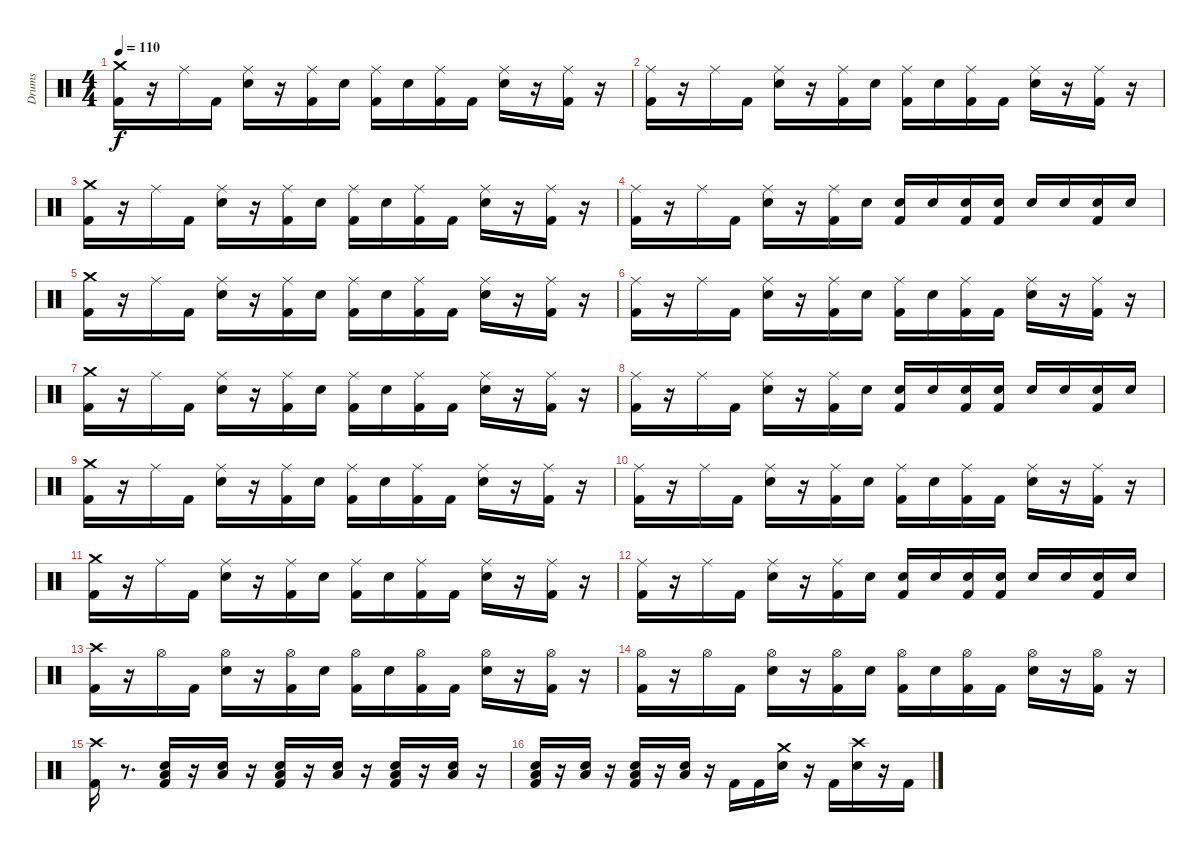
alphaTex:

\track ("Drums" "Drums") {instrument percussion}
\staff {score}
\articulation defaults
\ts (4 4)
\tempo 110
\clef neutral
\ks c
("Kick (hit) 2" "Crash medium (hit)").16{dy f} r.16 "Ride (middle)".16 "Kick (hit) 2".16 ("Electric Snare (hit)" "Ride (middle)").16 r.16 ("Kick (hit) 2" "Ride (middle)").16 "Electric Snare (hit)".16 ("Kick (hit) 2" "Ride (middle)").16 "Electric Snare (hit)".16 ("Kick (hit) 2" "Ride (middle)").16 "Kick (hit) 2".16 ("Electric Snare (hit)" "Ride (middle)").16 r.16 ("Kick (hit) 2" "Ride (middle)").16 r.16 |
("Kick (hit) 2" "Ride (middle)").16 r.16 "Ride (middle)".16 "Kick (hit) 2".16 ("Electric Snare (hit)" "Ride (middle)").16 r.16 ("Kick (hit) 2" "Ride (middle)").16 "Electric Snare (hit)".16 ("Kick (hit) 2" "Ride (middle)").16 "Electric Snare (hit)".16 ("Kick (hit) 2" "Ride (middle)").16 "Kick (hit) 2".16 ("Electric Snare (hit)" "Ride (middle)").16 r.16 ("Kick (hit) 2" "Ride (middle)").16 r.16 |
("Kick (hit) 2" "Crash medium (hit)").16 r.16 "Ride (middle)".16 "Kick (hit) 2".16 ("Electric Snare (hit)" "Ride (middle)").16 r.16 ("Kick (hit) 2" "Ride (middle)").16 "Electric Snare (hit)".16 ("Kick (hit) 2" "Ride (middle)").16 "Electric Snare (hit)".16 ("Kick (hit) 2" "Ride (middle)").16 "Kick (hit) 2".16 ("Electric Snare (hit)" "Ride (middle)").16 r.16 ("Kick (hit) 2" "Ride (middle)").16 r.16 |
("Kick (hit) 2" "Ride (middle)").16 r.16 "Ride (middle)".16 "Kick (hit) 2".16 ("Electric Snare (hit)" "Ride (middle)").16 r.16 ("Kick (hit) 2" "Ride (middle)").16 "Electric Snare (hit)".16 ("Kick (hit) 2" "Electric Snare (hit)").16 "Electric Snare (hit)".16 ("Kick (hit) 2" "Electric Snare (hit)").16 ("Kick (hit) 2" "Electric Snare (hit)").16 "Electric Snare (hit)".16 "Electric Snare (hit)".16 ("Kick (hit) 2" "Electric Snare (hit)").16 "Electric Snare (hit)".16 |
("Crash medium (hit)" "Kick (hit) 2").16 r.16 "Ride (middle)".16 "Kick (hit) 2".16 ("Electric Snare (hit)" "Ride (middle)").16 r.16 ("Kick (hit) 2" "Ride (middle)").16 "Electric Snare (hit)".16 ("Kick (hit) 2" "Ride (middle)").16 "Electric Snare (hit)".16 ("Kick (hit) 2" "Ride (middle)").16 "Kick (hit) 2".16 ("Electric Snare (hit)" "Ride (middle)").16 r.16 ("Kick (hit) 2" "Ride (middle)").16 r.16 |
("Kick (hit) 2" "Ride (middle)").16 r.16 "Ride (middle)".16 "Kick (hit) 2".16 ("Electric Snare (hit)" "Ride (middle)").16 r.16 ("Kick (hit) 2" "Ride (middle)").16 "Electric Snare (hit)".16 ("Kick (hit) 2" "Ride (middle)").16 "Electric Snare (hit)".16 ("Kick (hit) 2" "Ride (middle)").16 "Kick (hit) 2".16 ("Electric Snare (hit)" "Ride (middle)").16 r.16 ("Kick (hit) 2" "Ride (middle)").16 r.16 |
("Kick (hit) 2" "Crash medium (hit)").16 r.16 "Ride (middle)".16 "Kick (hit) 2".16 ("Electric Snare (hit)" "Ride (middle)").16 r.16 ("Kick (hit) 2" "Ride (middle)").16 "Electric Snare (hit)".16 ("Kick (hit) 2" "Ride (middle)").16 "Electric Snare (hit)".16 ("Kick (hit) 2" "Ride (middle)").16 "Kick (hit) 2".16 ("Electric Snare (hit)" "Ride (middle)").16 r.16 ("Kick (hit) 2" "Ride (middle)").16 r.16 |
("Kick (hit) 2" "Ride (middle)").16 r.16 "Ride (middle)".16 "Kick (hit) 2".16 ("Electric Snare (hit)" "Ride (middle)").16 r.16 ("Kick (hit) 2" "Ride (middle)").16 "Electric Snare (hit)".16 ("Kick (hit) 2" "Electric Snare (hit)").16 "Electric Snare (hit)".16 ("Kick (hit) 2" "Electric Snare (hit)").16 ("Kick (hit) 2" "Electric Snare (hit)").16 "Electric Snare (hit)".16 "Electric Snare (hit)".16 ("Kick (hit) 2" "Electric Snare (hit)").16 "Electric Snare (hit)".16 |
("Crash medium (hit)" "Kick (hit) 2").16 r.16 "Ride (middle)".16 "Kick (hit) 2".16 ("Electric Snare (hit)" "Ride (middle)").16 r.16 ("Kick (hit) 2" "Ride (middle)").16 "Electric Snare (hit)".16 ("Kick (hit) 2" "Ride (middle)").16 "Electric Snare (hit)".16 ("Kick (hit) 2" "Ride (middle)").16 "Kick (hit) 2".16 ("Electric Snare (hit)" "Ride (middle)").16 r.16 ("Kick (hit) 2" "Ride (middle)").16 r.16 |
("Kick (hit) 2" "Ride (middle)").16 r.16 "Ride (middle)".16 "Kick (hit) 2".16 ("Electric Snare (hit)" "Ride (middle)").16 r.16 ("Kick (hit) 2" "Ride (middle)").16 "Electric Snare (hit)".16 ("Kick (hit) 2" "Ride (middle)").16 "Electric Snare (hit)".16 ("Kick (hit) 2" "Ride (middle)").16 "Kick (hit) 2".16 ("Electric Snare (hit)" "Ride (middle)").16 r.16 ("Kick (hit) 2" "Ride (middle)").16 r.16 |
("Kick (hit) 2" "Crash medium (hit)").16 r.16 "Ride (middle)".16 "Kick (hit) 2".16 ("Electric Snare (hit)" "Ride (middle)").16 r.16 ("Kick (hit) 2" "Ride (middle)").16 "Electric Snare (hit)".16 ("Kick (hit) 2" "Ride (middle)").16 "Electric Snare (hit)".16 ("Kick (hit) 2" "Ride (middle)").16 "Kick (hit) 2".16 ("Electric Snare (hit)" "Ride (middle)").16 r.16 ("Kick (hit) 2" "Ride (middle)").16 r.16 |
("Kick (hit) 2" "Ride (middle)").16 r.16 "Ride (middle)".16 "Kick (hit) 2".16 ("Electric Snare (hit)" "Ride (middle)").16 r.16 ("Kick (hit) 2" "Ride (middle)").16 "Electric Snare (hit)".16 ("Kick (hit) 2" "Electric Snare (hit)").16 "Electric Snare (hit)".16 ("Kick (hit) 2" "Electric Snare (hit)").16 ("Kick (hit) 2" "Electric Snare (hit)").16 "Electric Snare (hit)".16 "Electric Snare (hit)".16 ("Kick (hit) 2" "Electric Snare (hit)").16 "Electric Snare (hit)".16 |
("Kick (hit) 2" "Crash high (hit)").16 r.16 "Hi-Hat (open)".16 "Kick (hit) 2".16 ("Hi-Hat (open)" "Electric Snare (hit)").16 r.16 ("Hi-Hat (open)" "Kick (hit) 2").16 "Electric Snare (hit)".16 ("Hi-Hat (open)" "Kick (hit) 2").16 "Electric Snare (hit)".16 ("Hi-Hat (open)" "Kick (hit) 2").16 "Kick (hit) 2".16 ("Hi-Hat (open)" "Electric Snare (hit)").16 r.16 ("Hi-Hat (open)" "Kick (hit) 2").16 r.16 |
("Kick (hit) 2" "Hi-Hat (open)").16 r.16 "Hi-Hat (open)".16 "Kick (hit) 2".16 ("Hi-Hat (open)" "Electric Snare (hit)").16 r.16 ("Hi-Hat (open)" "Kick (hit) 2").16 "Electric Snare (hit)".16 ("Hi-Hat (open)" "Kick (hit) 2").16 "Electric Snare (hit)".16 ("Hi-Hat (open)" "Kick (hit) 2").16 "Kick (hit) 2".16 ("Hi-Hat (open)" "Electric Snare (hit)").16 r.16 ("Hi-Hat (open)" "Kick (hit) 2").16 r.16 |
("Kick (hit) 2" "Crash high (hit)").16 r.8{d} ("Low Floor Tom (hit)" "Kick (hit) 2" "Electric Snare (hit)").16 r.16 ("Low Floor Tom (hit)" "Electric Snare (hit)").16 r.16 ("Kick (hit) 2" "Low Floor Tom (hit)" "Electric Snare (hit)").16 r.16 ("Low Floor Tom (hit)" "Electric Snare (hit)").16 r.16 ("Kick (hit) 2" "Low Floor Tom (hit)" "Electric Snare (hit)").16 r.16 ("Low Floor Tom (hit)" "Electric Snare (hit)").16 r.16 |
("Kick (hit) 2" "Low Floor Tom (hit)" "Electric Snare (hit)").16 r.16 ("Low Floor Tom (hit)" "Electric Snare (hit)").16 r.16 ("Kick (hit) 2" "Low Floor Tom (hit)" "Electric Snare (hit)").16 r.16 ("Low Floor Tom (hit)" "Electric Snare (hit)").16 r.16 "Kick (hit) 2".16 "Kick (hit) 2".16 ("Electric Snare (hit)" "Crash medium (hit)").16 r.16 "Kick (hit) 2".16 ("Electric Snare (hit)" "Crash high (hit)").16 r.16 "Kick (hit) 2".16
